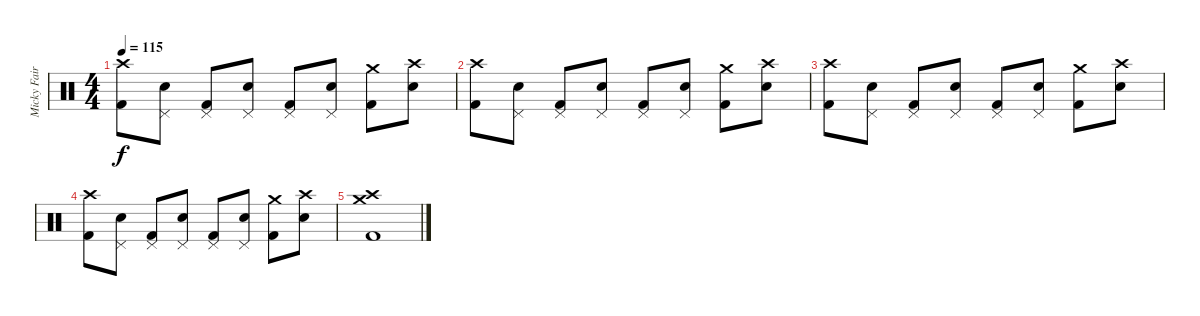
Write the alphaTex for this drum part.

\track ("Micky Fairbairn - Drums" "Micky Fair") {instrument percussion}
\staff {score}
\articulation defaults
\ts (4 4)
\tempo 115
\clef neutral
\ks c
("Crash high (hit)" "Kick (hit) 2").8{dy f} ("Pedal Hi-Hat (hit)" "Snare (hit) 2").8 ("Pedal Hi-Hat (hit)" "Kick (hit) 2").8 ("Pedal Hi-Hat (hit)" "Snare (hit) 2").8 ("Pedal Hi-Hat (hit)" "Kick (hit) 2").8 ("Pedal Hi-Hat (hit)" "Snare (hit) 2").8 ("Crash medium (hit)" "Kick (hit) 2").8 ("Crash high (hit)" "Snare (hit) 2").8 |
("Crash high (hit)" "Kick (hit) 2").8 ("Pedal Hi-Hat (hit)" "Snare (hit) 2").8 ("Pedal Hi-Hat (hit)" "Kick (hit) 2").8 ("Pedal Hi-Hat (hit)" "Snare (hit) 2").8 ("Pedal Hi-Hat (hit)" "Kick (hit) 2").8 ("Pedal Hi-Hat (hit)" "Snare (hit) 2").8 ("Crash medium (hit)" "Kick (hit) 2").8 ("Crash high (hit)" "Snare (hit) 2").8 |
("Crash high (hit)" "Kick (hit) 2").8 ("Pedal Hi-Hat (hit)" "Snare (hit) 2").8 ("Pedal Hi-Hat (hit)" "Kick (hit) 2").8 ("Pedal Hi-Hat (hit)" "Snare (hit) 2").8 ("Pedal Hi-Hat (hit)" "Kick (hit) 2").8 ("Pedal Hi-Hat (hit)" "Snare (hit) 2").8 ("Crash medium (hit)" "Kick (hit) 2").8 ("Crash high (hit)" "Snare (hit) 2").8 |
("Crash high (hit)" "Kick (hit) 2").8 ("Pedal Hi-Hat (hit)" "Snare (hit) 2").8 ("Pedal Hi-Hat (hit)" "Kick (hit) 2").8 ("Pedal Hi-Hat (hit)" "Snare (hit) 2").8 ("Pedal Hi-Hat (hit)" "Kick (hit) 2").8 ("Pedal Hi-Hat (hit)" "Snare (hit) 2").8 ("Crash medium (hit)" "Kick (hit) 2").8 ("Crash high (hit)" "Snare (hit) 2").8 |
("Crash high (hit)" "Crash medium (hit)" "Kick (hit) 2").1
